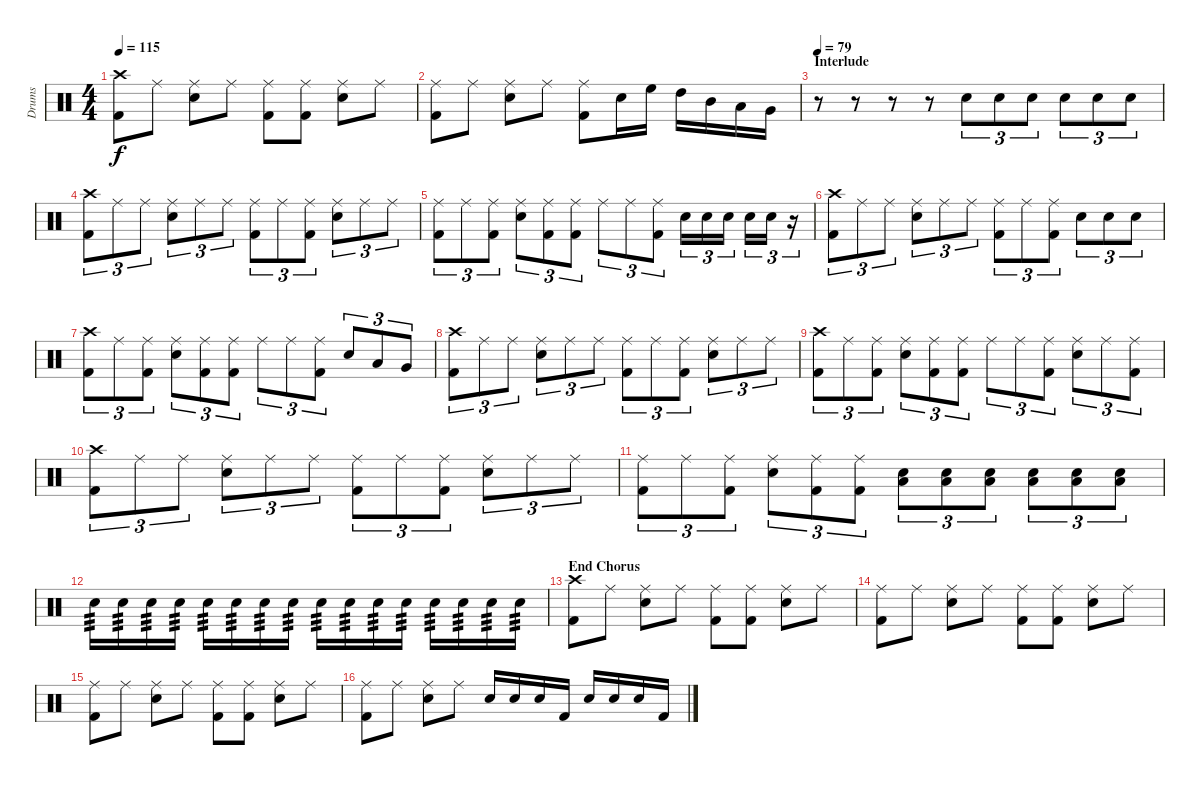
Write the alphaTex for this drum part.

\track ("Drums" "Drums") {instrument percussion}
\staff {score}
\articulation defaults
\ts (4 4)
\tempo 115
\clef neutral
\ks c
("Crash high (hit)" "Kick (hit) 2").8{dy f} "Ride (middle)".8 ("Ride (middle)" "Electric Snare (hit)").8 "Ride (middle)".8 ("Ride (middle)" "Kick (hit) 2").8 ("Ride (middle)" "Kick (hit) 2").8 ("Ride (middle)" "Electric Snare (hit)").8 "Ride (middle)".8 |
("Ride (middle)" "Kick (hit) 2").8 "Ride (middle)".8 ("Ride (middle)" "Electric Snare (hit)").8 "Ride (middle)".8 ("Ride (middle)" "Kick (hit) 2").8 "Electric Snare (hit)".16 "High Floor Tom (hit)".16 "High Tom (hit)".16 "Mid Tom (hit)".16 "Low Tom (hit)".16 "Very Low Tom (hit)".16 |
\section ("" "Interlude")
\tempo 79
r.8 r.8 r.8 r.8 "Electric Snare (hit)".8{tu (3 2)} "Electric Snare (hit)".8{tu (3 2)} "Electric Snare (hit)".8{tu (3 2)} "Electric Snare (hit)".8{tu (3 2)} "Electric Snare (hit)".8{tu (3 2)} "Electric Snare (hit)".8{tu (3 2)} |
("Crash high (hit)" "Kick (hit) 2").8{tu (3 2)} "Ride (middle)".8{tu (3 2)} "Ride (middle)".8{tu (3 2)} ("Ride (middle)" "Electric Snare (hit)").8{tu (3 2)} "Ride (middle)".8{tu (3 2)} "Ride (middle)".8{tu (3 2)} ("Ride (middle)" "Kick (hit) 2").8{tu (3 2)} "Ride (middle)".8{tu (3 2)} ("Ride (middle)" "Kick (hit) 2").8{tu (3 2)} ("Ride (middle)" "Electric Snare (hit)").8{tu (3 2)} "Ride (middle)".8{tu (3 2)} "Ride (middle)".8{tu (3 2)} |
("Ride (middle)" "Kick (hit) 2").8{tu (3 2)} "Ride (middle)".8{tu (3 2)} ("Ride (middle)" "Kick (hit) 2").8{tu (3 2)} ("Ride (middle)" "Electric Snare (hit)").8{tu (3 2)} ("Ride (middle)" "Kick (hit) 2").8{tu (3 2)} ("Ride (middle)" "Kick (hit) 2").8{tu (3 2)} "Ride (middle)".8{tu (3 2)} "Ride (middle)".8{tu (3 2)} ("Ride (middle)" "Kick (hit) 2").8{tu (3 2)} "Electric Snare (hit)".16{tu (3 2)} "Electric Snare (hit)".16{tu (3 2)} "Electric Snare (hit)".16{tu (3 2)} "Electric Snare (hit)".16{tu (3 2)} "Electric Snare (hit)".16{tu (3 2)} r.16{tu (3 2)} |
("Crash high (hit)" "Kick (hit) 2").8{tu (3 2)} "Ride (middle)".8{tu (3 2)} "Ride (middle)".8{tu (3 2)} ("Ride (middle)" "Electric Snare (hit)").8{tu (3 2)} "Ride (middle)".8{tu (3 2)} "Ride (middle)".8{tu (3 2)} ("Ride (middle)" "Kick (hit) 2").8{tu (3 2)} "Ride (middle)".8{tu (3 2)} ("Ride (middle)" "Kick (hit) 2").8{tu (3 2)} "Electric Snare (hit)".8{tu (3 2)} "Electric Snare (hit)".8{tu (3 2)} "Electric Snare (hit)".8{tu (3 2)} |
("Crash high (hit)" "Kick (hit) 2").8{tu (3 2)} "Ride (middle)".8{tu (3 2)} ("Ride (middle)" "Kick (hit) 2").8{tu (3 2)} ("Ride (middle)" "Electric Snare (hit)").8{tu (3 2)} ("Ride (middle)" "Kick (hit) 2").8{tu (3 2)} ("Ride (middle)" "Kick (hit) 2").8{tu (3 2)} "Ride (middle)".8{tu (3 2)} "Ride (middle)".8{tu (3 2)} ("Ride (middle)" "Kick (hit) 2").8{tu (3 2)} "Electric Snare (hit)".8{tu (3 2)} "Low Tom (hit)".8{tu (3 2)} "Very Low Tom (hit)".8{tu (3 2)} |
("Crash high (hit)" "Kick (hit) 2").8{tu (3 2)} "Ride (middle)".8{tu (3 2)} "Ride (middle)".8{tu (3 2)} ("Ride (middle)" "Electric Snare (hit)").8{tu (3 2)} "Ride (middle)".8{tu (3 2)} "Ride (middle)".8{tu (3 2)} ("Ride (middle)" "Kick (hit) 2").8{tu (3 2)} "Ride (middle)".8{tu (3 2)} ("Ride (middle)" "Kick (hit) 2").8{tu (3 2)} ("Ride (middle)" "Electric Snare (hit)").8{tu (3 2)} "Ride (middle)".8{tu (3 2)} "Ride (middle)".8{tu (3 2)} |
("Crash high (hit)" "Kick (hit) 2").8{tu (3 2)} "Ride (middle)".8{tu (3 2)} ("Ride (middle)" "Kick (hit) 2").8{tu (3 2)} ("Ride (middle)" "Electric Snare (hit)").8{tu (3 2)} ("Ride (middle)" "Kick (hit) 2").8{tu (3 2)} ("Ride (middle)" "Kick (hit) 2").8{tu (3 2)} "Ride (middle)".8{tu (3 2)} "Ride (middle)".8{tu (3 2)} ("Ride (middle)" "Kick (hit) 2").8{tu (3 2)} ("Ride (middle)" "Electric Snare (hit)").8{tu (3 2)} "Ride (middle)".8{tu (3 2)} ("Ride (middle)" "Kick (hit) 2").8{tu (3 2)} |
("Crash high (hit)" "Kick (hit) 2").8{tu (3 2)} "Ride (middle)".8{tu (3 2)} "Ride (middle)".8{tu (3 2)} ("Ride (middle)" "Electric Snare (hit)").8{tu (3 2)} "Ride (middle)".8{tu (3 2)} "Ride (middle)".8{tu (3 2)} ("Ride (middle)" "Kick (hit) 2").8{tu (3 2)} "Ride (middle)".8{tu (3 2)} ("Ride (middle)" "Kick (hit) 2").8{tu (3 2)} ("Ride (middle)" "Electric Snare (hit)").8{tu (3 2)} "Ride (middle)".8{tu (3 2)} "Ride (middle)".8{tu (3 2)} |
("Ride (middle)" "Kick (hit) 2").8{tu (3 2)} "Ride (middle)".8{tu (3 2)} ("Ride (middle)" "Kick (hit) 2").8{tu (3 2)} ("Ride (middle)" "Electric Snare (hit)").8{tu (3 2)} ("Ride (middle)" "Kick (hit) 2").8{tu (3 2)} ("Ride (middle)" "Kick (hit) 2").8{tu (3 2)} ("Electric Snare (hit)" "Low Tom (hit)").8{tu (3 2)} ("Electric Snare (hit)" "Low Tom (hit)").8{tu (3 2)} ("Electric Snare (hit)" "Low Tom (hit)").8{tu (3 2)} ("Electric Snare (hit)" "Low Tom (hit)").8{tu (3 2)} ("Electric Snare (hit)" "Low Tom (hit)").8{tu (3 2)} ("Electric Snare (hit)" "Low Tom (hit)").8{tu (3 2)} |
"Electric Snare (hit)".16{tp 3} "Electric Snare (hit)".16{tp 3} "Electric Snare (hit)".16{tp 3} "Electric Snare (hit)".16{tp 3} "Electric Snare (hit)".16{tp 3} "Electric Snare (hit)".16{tp 3} "Electric Snare (hit)".16{tp 3} "Electric Snare (hit)".16{tp 3} "Electric Snare (hit)".16{tp 3} "Electric Snare (hit)".16{tp 3} "Electric Snare (hit)".16{tp 3} "Electric Snare (hit)".16{tp 3} "Electric Snare (hit)".16{tp 3} "Electric Snare (hit)".16{tp 3} "Electric Snare (hit)".16{tp 3} "Electric Snare (hit)".16{tp 3} |
\section ("" "End Chorus")
("Crash high (hit)" "Kick (hit) 2").8 "Ride (middle)".8 ("Ride (middle)" "Electric Snare (hit)").8 "Ride (middle)".8 ("Ride (middle)" "Kick (hit) 2").8 ("Ride (middle)" "Kick (hit) 2").8 ("Ride (middle)" "Electric Snare (hit)").8 "Ride (middle)".8 |
("Ride (middle)" "Kick (hit) 2").8 "Ride (middle)".8 ("Ride (middle)" "Electric Snare (hit)").8 "Ride (middle)".8 ("Ride (middle)" "Kick (hit) 2").8 ("Ride (middle)" "Kick (hit) 2").8 ("Ride (middle)" "Electric Snare (hit)").8 "Ride (middle)".8 |
("Ride (middle)" "Kick (hit) 2").8 "Ride (middle)".8 ("Ride (middle)" "Electric Snare (hit)").8 "Ride (middle)".8 ("Ride (middle)" "Kick (hit) 2").8 ("Ride (middle)" "Kick (hit) 2").8 ("Ride (middle)" "Electric Snare (hit)").8 "Ride (middle)".8 |
("Ride (middle)" "Kick (hit) 2").8 "Ride (middle)".8 ("Ride (middle)" "Electric Snare (hit)").8 "Ride (middle)".8 "Electric Snare (hit)".16 "Electric Snare (hit)".16 "Electric Snare (hit)".16 "Kick (hit) 2".16 "Electric Snare (hit)".16 "Electric Snare (hit)".16 "Electric Snare (hit)".16 "Kick (hit) 2".16
